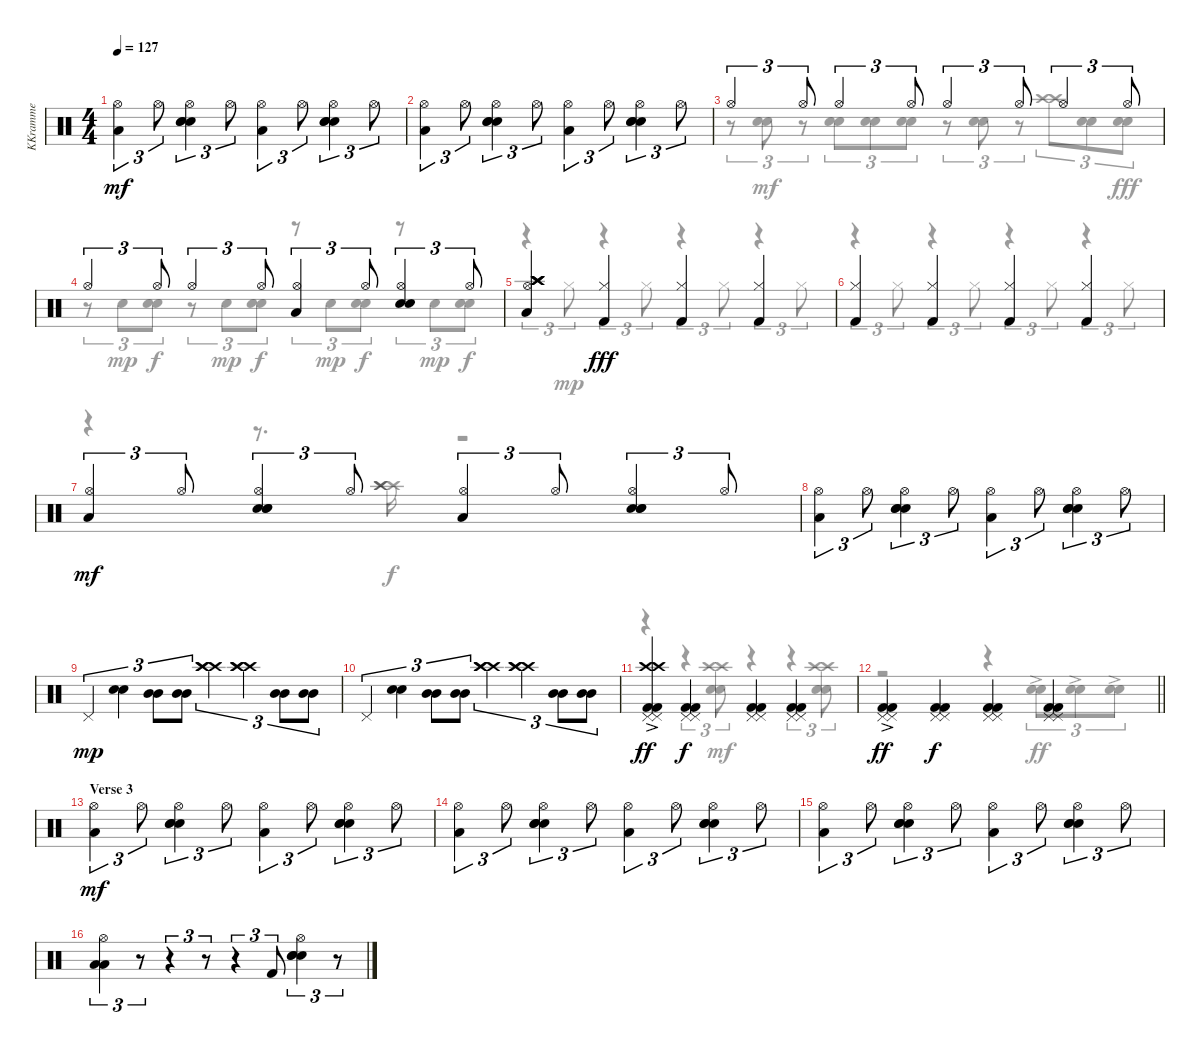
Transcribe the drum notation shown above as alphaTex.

\track ("KKramme" "KKramme") {instrument percussion}
\staff {score}
\articulation defaults
\voice
\ts (4 4)
\tempo 127
\clef neutral
\ks c
("Low Tom (hit)" "Hi-Hat (open)").4{tu (3 2) dy mf} "Hi-Hat (open)".8{tu (3 2)} ("Snare (hit) 2" "Snare (hit) 2" "Snare (hit) 2" "Hi-Hat (open)").4{tu (3 2)} "Hi-Hat (open)".8{tu (3 2)} ("Low Tom (hit)" "Hi-Hat (open)").4{tu (3 2)} "Hi-Hat (open)".8{tu (3 2)} ("Snare (hit) 2" "Snare (hit) 2" "Snare (hit) 2" "Hi-Hat (open)").4{tu (3 2)} "Hi-Hat (open)".8{tu (3 2)} |
("Low Tom (hit)" "Hi-Hat (open)").4{tu (3 2)} "Hi-Hat (open)".8{tu (3 2)} ("Snare (hit) 2" "Snare (hit) 2" "Snare (hit) 2" "Hi-Hat (open)").4{tu (3 2)} "Hi-Hat (open)".8{tu (3 2)} ("Low Tom (hit)" "Hi-Hat (open)").4{tu (3 2)} "Hi-Hat (open)".8{tu (3 2)} ("Snare (hit) 2" "Snare (hit) 2" "Snare (hit) 2" "Hi-Hat (open)").4{tu (3 2)} "Hi-Hat (open)".8{tu (3 2)} |
"Hi-Hat (open)".4{tu (3 2)} "Hi-Hat (open)".8{tu (3 2)} "Hi-Hat (open)".4{tu (3 2)} "Hi-Hat (open)".8{tu (3 2)} "Hi-Hat (open)".4{tu (3 2)} "Hi-Hat (open)".8{tu (3 2)} "Hi-Hat (open)".4{tu (3 2)} "Hi-Hat (open)".8{tu (3 2)} |
"Hi-Hat (open)".4{tu (3 2)} "Hi-Hat (open)".8{tu (3 2)} "Hi-Hat (open)".4{tu (3 2)} "Hi-Hat (open)".8{tu (3 2)} ("Low Tom (hit)" "Hi-Hat (open)").4{tu (3 2)} "Hi-Hat (open)".8{tu (3 2)} ("Snare (hit) 2" "Snare (hit) 2" "Hi-Hat (open)").4{tu (3 2)} "Hi-Hat (open)".8{tu (3 2)} |
("Crash high (hit)" "Crash high (hit)" "Crash high (hit)" "Low Tom (hit)" "Hi-Hat (open)").4 ("Hi-Hat (closed)" "Kick (hit) 2").4{dy fff} ("Hi-Hat (closed)" "Kick (hit) 2").4 ("Hi-Hat (closed)" "Kick (hit) 2").4 |
("Hi-Hat (closed)" "Kick (hit) 2").4 ("Hi-Hat (closed)" "Kick (hit) 2").4 ("Hi-Hat (closed)" "Kick (hit) 2").4 ("Hi-Hat (closed)" "Kick (hit) 2").4 |
("Low Tom (hit)" "Hi-Hat (open)").4{tu (3 2) dy mf} "Hi-Hat (open)".8{tu (3 2)} ("Snare (hit) 2" "Snare (hit) 2" "Snare (hit) 2" "Hi-Hat (open)").4{tu (3 2)} "Hi-Hat (open)".8{tu (3 2)} ("Low Tom (hit)" "Hi-Hat (open)").4{tu (3 2)} "Hi-Hat (open)".8{tu (3 2)} ("Snare (hit) 2" "Snare (hit) 2" "Snare (hit) 2" "Hi-Hat (open)").4{tu (3 2)} "Hi-Hat (open)".8{tu (3 2)} |
("Low Tom (hit)" "Hi-Hat (open)").4{tu (3 2)} "Hi-Hat (open)".8{tu (3 2)} ("Snare (hit) 2" "Snare (hit) 2" "Snare (hit) 2" "Hi-Hat (open)").4{tu (3 2)} "Hi-Hat (open)".8{tu (3 2)} ("Low Tom (hit)" "Hi-Hat (open)").4{tu (3 2)} "Hi-Hat (open)".8{tu (3 2)} ("Snare (hit) 2" "Snare (hit) 2" "Snare (hit) 2" "Hi-Hat (open)").4{tu (3 2)} "Hi-Hat (open)".8{tu (3 2)} |
"Pedal Hi-Hat (hit)".4{tu (3 2) dy mp} ("Snare (hit) 2" "Snare (hit) 2").4{tu (3 2)} ("Mid Tom (hit)" "Mid Tom (hit)").8{tu (3 2)} ("Mid Tom (hit)" "Mid Tom (hit)").8{tu (3 2)} ("Crash high (hit)" "Crash high (hit)" "Crash high (hit)").4{tu (3 2)} ("Crash high (hit)" "Crash high (hit)" "Crash high (hit)").4{tu (3 2)} ("Mid Tom (hit)" "Mid Tom (hit)").8{tu (3 2)} ("Mid Tom (hit)" "Mid Tom (hit)").8{tu (3 2)} |
"Pedal Hi-Hat (hit)".4{tu (3 2)} ("Snare (hit) 2" "Snare (hit) 2").4{tu (3 2)} ("Mid Tom (hit)" "Mid Tom (hit)").8{tu (3 2)} ("Mid Tom (hit)" "Mid Tom (hit)").8{tu (3 2)} ("Crash high (hit)" "Crash high (hit)" "Crash high (hit)").4{tu (3 2)} ("Crash high (hit)" "Crash high (hit)" "Crash high (hit)").4{tu (3 2)} ("Mid Tom (hit)" "Mid Tom (hit)").8{tu (3 2)} ("Mid Tom (hit)" "Mid Tom (hit)").8{tu (3 2)} |
("Crash high (hit)"{ac} "Crash high (hit)"{ac} "Pedal Hi-Hat (hit)"{ac} "Pedal Hi-Hat (hit)"{ac} "Kick (hit) 2"{ac} "Kick (hit) 2"{ac}).4{dy ff} ("Pedal Hi-Hat (hit)" "Pedal Hi-Hat (hit)" "Kick (hit) 2" "Kick (hit) 2").4{dy f} ("Pedal Hi-Hat (hit)" "Pedal Hi-Hat (hit)" "Kick (hit) 2" "Kick (hit) 2").4 ("Pedal Hi-Hat (hit)" "Pedal Hi-Hat (hit)" "Kick (hit) 2" "Kick (hit) 2").4 |
\barLineRight lightlight
("Pedal Hi-Hat (hit)"{ac} "Pedal Hi-Hat (hit)"{ac} "Kick (hit) 2"{ac} "Kick (hit) 2"{ac}).4{dy ff} ("Pedal Hi-Hat (hit)" "Pedal Hi-Hat (hit)" "Kick (hit) 2" "Kick (hit) 2").4{dy f} ("Pedal Hi-Hat (hit)" "Pedal Hi-Hat (hit)" "Kick (hit) 2" "Kick (hit) 2").4 ("Pedal Hi-Hat (hit)" "Pedal Hi-Hat (hit)" "Kick (hit) 2" "Kick (hit) 2").4 |
\section ("" "Verse 3")
("Low Tom (hit)" "Hi-Hat (open)").4{tu (3 2) dy mf} "Hi-Hat (open)".8{tu (3 2)} ("Snare (hit) 2" "Snare (hit) 2" "Snare (hit) 2" "Hi-Hat (open)").4{tu (3 2)} "Hi-Hat (open)".8{tu (3 2)} ("Low Tom (hit)" "Hi-Hat (open)").4{tu (3 2)} "Hi-Hat (open)".8{tu (3 2)} ("Snare (hit) 2" "Snare (hit) 2" "Snare (hit) 2" "Hi-Hat (open)").4{tu (3 2)} "Hi-Hat (open)".8{tu (3 2)} |
("Low Tom (hit)" "Hi-Hat (open)").4{tu (3 2)} "Hi-Hat (open)".8{tu (3 2)} ("Snare (hit) 2" "Snare (hit) 2" "Snare (hit) 2" "Hi-Hat (open)").4{tu (3 2)} "Hi-Hat (open)".8{tu (3 2)} ("Low Tom (hit)" "Hi-Hat (open)").4{tu (3 2)} "Hi-Hat (open)".8{tu (3 2)} ("Snare (hit) 2" "Snare (hit) 2" "Snare (hit) 2" "Hi-Hat (open)").4{tu (3 2)} "Hi-Hat (open)".8{tu (3 2)} |
("Low Tom (hit)" "Hi-Hat (open)").4{tu (3 2)} "Hi-Hat (open)".8{tu (3 2)} ("Snare (hit) 2" "Snare (hit) 2" "Snare (hit) 2" "Hi-Hat (open)").4{tu (3 2)} "Hi-Hat (open)".8{tu (3 2)} ("Low Tom (hit)" "Hi-Hat (open)").4{tu (3 2)} "Hi-Hat (open)".8{tu (3 2)} ("Snare (hit) 2" "Snare (hit) 2" "Snare (hit) 2" "Hi-Hat (open)").4{tu (3 2)} "Hi-Hat (open)".8{tu (3 2)} |
("Low Tom (hit)" "Low Tom (hit)" "Hi-Hat (open)").4{tu (3 2)} r.8{tu (3 2)} r.4{tu (3 2)} r.8{tu (3 2)} r.4{tu (3 2)} "Kick (hit) 2".8{tu (3 2)} ("Snare (hit) 2" "Snare (hit) 2" "Snare (hit) 2" "Hi-Hat (open)").4{tu (3 2)} r.8{tu (3 2)}
\voice
\clef neutral
\ottava regular
\simile none
\ks c
|
|
r.8{tu (3 2)} ("Snare (hit) 2" "Snare (hit) 2").8{tu (3 2)} r.8{tu (3 2)} ("Snare (hit) 2" "Snare (hit) 2").8{tu (3 2)} ("Snare (hit) 2" "Snare (hit) 2").8{tu (3 2)} ("Snare (hit) 2" "Snare (hit) 2").8{tu (3 2)} r.8{tu (3 2)} ("Snare (hit) 2" "Snare (hit) 2").8{tu (3 2)} r.8{tu (3 2)} ("Crash high (hit)" "Crash high (hit)").8{tu (3 2)} ("Snare (hit) 2" "Snare (hit) 2").8{tu (3 2)} ("Snare (hit) 2" "Snare (hit) 2").8{tu (3 2) dy fff} |
r.8{tu (3 2)} "Snare (hit) 2".8{tu (3 2) dy mp} ("Snare (hit) 2" "Snare (hit) 2").8{tu (3 2) dy f} r.8{tu (3 2)} "Snare (hit) 2".8{tu (3 2) dy mp} ("Snare (hit) 2" "Snare (hit) 2").8{tu (3 2) dy f} r.8{tu (3 2)} "Snare (hit) 2".8{tu (3 2) dy mp} ("Snare (hit) 2" "Snare (hit) 2").8{tu (3 2) dy f} r.8{tu (3 2)} "Snare (hit) 2".8{tu (3 2) dy mp} ("Snare (hit) 2" "Snare (hit) 2").8{tu (3 2) dy f} |
r.4{tu (3 2)} "Hi-Hat (closed)".8{tu (3 2) dy mp} r.4{tu (3 2)} "Hi-Hat (closed)".8{tu (3 2)} r.4{tu (3 2)} "Hi-Hat (closed)".8{tu (3 2)} r.4{tu (3 2)} "Hi-Hat (closed)".8{tu (3 2)} |
r.4{tu (3 2)} "Hi-Hat (closed)".8{tu (3 2)} r.4{tu (3 2)} "Hi-Hat (closed)".8{tu (3 2)} r.4{tu (3 2)} "Hi-Hat (closed)".8{tu (3 2)} r.4{tu (3 2)} "Hi-Hat (closed)".8{tu (3 2)} |
r.4 r.8{d} ("Crash high (hit)" "Crash high (hit)" "Crash high (hit)").16{dy f} r.2 |
|
|
|
r.4 r.4{tu (3 2)} ("Crash high (hit)" "Crash high (hit)" "Snare (hit) 2" "Snare (hit) 2").8{tu (3 2) dy mf} r.4 r.4{tu (3 2)} ("Crash high (hit)" "Crash high (hit)" "Snare (hit) 2" "Snare (hit) 2").8{tu (3 2)} |
\barLineRight lightlight
r.2 r.4 ("Snare (hit) 2"{ac} "Snare (hit) 2"{ac}).8{tu (3 2) dy ff} ("Snare (hit) 2"{ac} "Snare (hit) 2"{ac}).8{tu (3 2)} ("Snare (hit) 2"{ac} "Snare (hit) 2"{ac}).8{tu (3 2)} |
|
|
|
